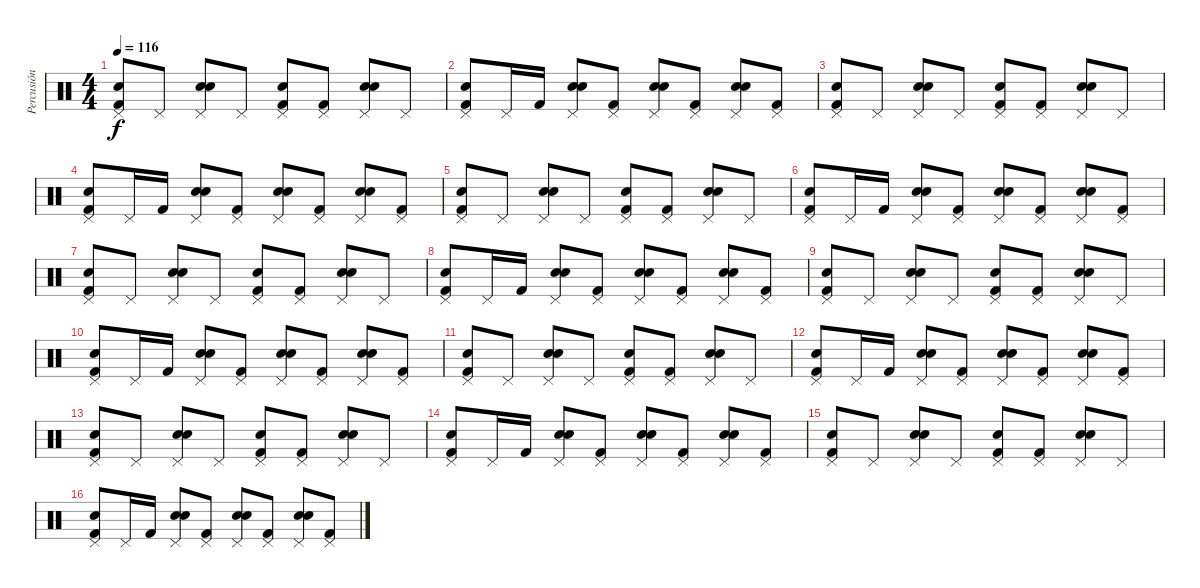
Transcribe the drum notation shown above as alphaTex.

\track ("Percusión" "Percusión") {instrument percussion}
\staff {score}
\articulation defaults
\ts (4 4)
\tempo 116
\clef neutral
\ks c
("Hand Clap (hit)" "Pedal Hi-Hat (hit)" "Kick (hit) 2").8{dy f} "Pedal Hi-Hat (hit)".8 ("Hand Clap (hit)" "Pedal Hi-Hat (hit)" "Snare (hit) 2").8 "Pedal Hi-Hat (hit)".8 ("Hand Clap (hit)" "Pedal Hi-Hat (hit)" "Kick (hit) 2").8 ("Pedal Hi-Hat (hit)" "Kick (hit) 2").8 ("Hand Clap (hit)" "Pedal Hi-Hat (hit)" "Snare (hit) 2").8 "Pedal Hi-Hat (hit)".8 |
("Hand Clap (hit)" "Pedal Hi-Hat (hit)" "Kick (hit) 2").8 "Pedal Hi-Hat (hit)".16 "Kick (hit) 2".16 ("Hand Clap (hit)" "Pedal Hi-Hat (hit)" "Snare (hit) 2").8 ("Pedal Hi-Hat (hit)" "Kick (hit) 2").8 ("Hand Clap (hit)" "Pedal Hi-Hat (hit)" "Snare (hit) 2").8 ("Pedal Hi-Hat (hit)" "Kick (hit) 2").8 ("Hand Clap (hit)" "Pedal Hi-Hat (hit)" "Snare (hit) 2").8 ("Pedal Hi-Hat (hit)" "Kick (hit) 2").8 |
("Hand Clap (hit)" "Pedal Hi-Hat (hit)" "Kick (hit) 2").8 "Pedal Hi-Hat (hit)".8 ("Hand Clap (hit)" "Pedal Hi-Hat (hit)" "Snare (hit) 2").8 "Pedal Hi-Hat (hit)".8 ("Hand Clap (hit)" "Pedal Hi-Hat (hit)" "Kick (hit) 2").8 ("Pedal Hi-Hat (hit)" "Kick (hit) 2").8 ("Hand Clap (hit)" "Pedal Hi-Hat (hit)" "Snare (hit) 2").8 "Pedal Hi-Hat (hit)".8 |
("Hand Clap (hit)" "Pedal Hi-Hat (hit)" "Kick (hit) 2").8 "Pedal Hi-Hat (hit)".16 "Kick (hit) 2".16 ("Hand Clap (hit)" "Pedal Hi-Hat (hit)" "Snare (hit) 2").8 ("Pedal Hi-Hat (hit)" "Kick (hit) 2").8 ("Hand Clap (hit)" "Pedal Hi-Hat (hit)" "Snare (hit) 2").8 ("Pedal Hi-Hat (hit)" "Kick (hit) 2").8 ("Hand Clap (hit)" "Pedal Hi-Hat (hit)" "Snare (hit) 2").8 ("Pedal Hi-Hat (hit)" "Kick (hit) 2").8 |
("Hand Clap (hit)" "Pedal Hi-Hat (hit)" "Kick (hit) 2").8 "Pedal Hi-Hat (hit)".8 ("Hand Clap (hit)" "Pedal Hi-Hat (hit)" "Snare (hit) 2").8 "Pedal Hi-Hat (hit)".8 ("Hand Clap (hit)" "Pedal Hi-Hat (hit)" "Kick (hit) 2").8 ("Pedal Hi-Hat (hit)" "Kick (hit) 2").8 ("Hand Clap (hit)" "Pedal Hi-Hat (hit)" "Snare (hit) 2").8 "Pedal Hi-Hat (hit)".8 |
("Hand Clap (hit)" "Pedal Hi-Hat (hit)" "Kick (hit) 2").8 "Pedal Hi-Hat (hit)".16 "Kick (hit) 2".16 ("Hand Clap (hit)" "Pedal Hi-Hat (hit)" "Snare (hit) 2").8 ("Pedal Hi-Hat (hit)" "Kick (hit) 2").8 ("Hand Clap (hit)" "Pedal Hi-Hat (hit)" "Snare (hit) 2").8 ("Pedal Hi-Hat (hit)" "Kick (hit) 2").8 ("Hand Clap (hit)" "Pedal Hi-Hat (hit)" "Snare (hit) 2").8 ("Pedal Hi-Hat (hit)" "Kick (hit) 2").8 |
("Hand Clap (hit)" "Pedal Hi-Hat (hit)" "Kick (hit) 2").8 "Pedal Hi-Hat (hit)".8 ("Hand Clap (hit)" "Pedal Hi-Hat (hit)" "Snare (hit) 2").8 "Pedal Hi-Hat (hit)".8 ("Hand Clap (hit)" "Pedal Hi-Hat (hit)" "Kick (hit) 2").8 ("Pedal Hi-Hat (hit)" "Kick (hit) 2").8 ("Hand Clap (hit)" "Pedal Hi-Hat (hit)" "Snare (hit) 2").8 "Pedal Hi-Hat (hit)".8 |
("Hand Clap (hit)" "Pedal Hi-Hat (hit)" "Kick (hit) 2").8 "Pedal Hi-Hat (hit)".16 "Kick (hit) 2".16 ("Hand Clap (hit)" "Pedal Hi-Hat (hit)" "Snare (hit) 2").8 ("Pedal Hi-Hat (hit)" "Kick (hit) 2").8 ("Hand Clap (hit)" "Pedal Hi-Hat (hit)" "Snare (hit) 2").8 ("Pedal Hi-Hat (hit)" "Kick (hit) 2").8 ("Hand Clap (hit)" "Pedal Hi-Hat (hit)" "Snare (hit) 2").8 ("Pedal Hi-Hat (hit)" "Kick (hit) 2").8 |
("Hand Clap (hit)" "Pedal Hi-Hat (hit)" "Kick (hit) 2").8 "Pedal Hi-Hat (hit)".8 ("Hand Clap (hit)" "Pedal Hi-Hat (hit)" "Snare (hit) 2").8 "Pedal Hi-Hat (hit)".8 ("Hand Clap (hit)" "Pedal Hi-Hat (hit)" "Kick (hit) 2").8 ("Pedal Hi-Hat (hit)" "Kick (hit) 2").8 ("Hand Clap (hit)" "Pedal Hi-Hat (hit)" "Snare (hit) 2").8 "Pedal Hi-Hat (hit)".8 |
("Hand Clap (hit)" "Pedal Hi-Hat (hit)" "Kick (hit) 2").8 "Pedal Hi-Hat (hit)".16 "Kick (hit) 2".16 ("Hand Clap (hit)" "Pedal Hi-Hat (hit)" "Snare (hit) 2").8 ("Pedal Hi-Hat (hit)" "Kick (hit) 2").8 ("Hand Clap (hit)" "Pedal Hi-Hat (hit)" "Snare (hit) 2").8 ("Pedal Hi-Hat (hit)" "Kick (hit) 2").8 ("Hand Clap (hit)" "Pedal Hi-Hat (hit)" "Snare (hit) 2").8 ("Pedal Hi-Hat (hit)" "Kick (hit) 2").8 |
("Hand Clap (hit)" "Pedal Hi-Hat (hit)" "Kick (hit) 2").8{volume 10} "Pedal Hi-Hat (hit)".8 ("Hand Clap (hit)" "Pedal Hi-Hat (hit)" "Snare (hit) 2").8 "Pedal Hi-Hat (hit)".8 ("Hand Clap (hit)" "Pedal Hi-Hat (hit)" "Kick (hit) 2").8 ("Pedal Hi-Hat (hit)" "Kick (hit) 2").8 ("Hand Clap (hit)" "Pedal Hi-Hat (hit)" "Snare (hit) 2").8 "Pedal Hi-Hat (hit)".8 |
("Hand Clap (hit)" "Pedal Hi-Hat (hit)" "Kick (hit) 2").8 "Pedal Hi-Hat (hit)".16 "Kick (hit) 2".16 ("Hand Clap (hit)" "Pedal Hi-Hat (hit)" "Snare (hit) 2").8 ("Pedal Hi-Hat (hit)" "Kick (hit) 2").8 ("Hand Clap (hit)" "Pedal Hi-Hat (hit)" "Snare (hit) 2").8 ("Pedal Hi-Hat (hit)" "Kick (hit) 2").8 ("Hand Clap (hit)" "Pedal Hi-Hat (hit)" "Snare (hit) 2").8 ("Pedal Hi-Hat (hit)" "Kick (hit) 2").8 |
("Hand Clap (hit)" "Pedal Hi-Hat (hit)" "Kick (hit) 2").8{volume 8} "Pedal Hi-Hat (hit)".8 ("Hand Clap (hit)" "Pedal Hi-Hat (hit)" "Snare (hit) 2").8 "Pedal Hi-Hat (hit)".8 ("Hand Clap (hit)" "Pedal Hi-Hat (hit)" "Kick (hit) 2").8 ("Pedal Hi-Hat (hit)" "Kick (hit) 2").8 ("Hand Clap (hit)" "Pedal Hi-Hat (hit)" "Snare (hit) 2").8 "Pedal Hi-Hat (hit)".8 |
("Hand Clap (hit)" "Pedal Hi-Hat (hit)" "Kick (hit) 2").8 "Pedal Hi-Hat (hit)".16 "Kick (hit) 2".16 ("Hand Clap (hit)" "Pedal Hi-Hat (hit)" "Snare (hit) 2").8 ("Pedal Hi-Hat (hit)" "Kick (hit) 2").8 ("Hand Clap (hit)" "Pedal Hi-Hat (hit)" "Snare (hit) 2").8 ("Pedal Hi-Hat (hit)" "Kick (hit) 2").8 ("Hand Clap (hit)" "Pedal Hi-Hat (hit)" "Snare (hit) 2").8 ("Pedal Hi-Hat (hit)" "Kick (hit) 2").8 |
("Hand Clap (hit)" "Pedal Hi-Hat (hit)" "Kick (hit) 2").8 "Pedal Hi-Hat (hit)".8 ("Hand Clap (hit)" "Pedal Hi-Hat (hit)" "Snare (hit) 2").8 "Pedal Hi-Hat (hit)".8 ("Hand Clap (hit)" "Pedal Hi-Hat (hit)" "Kick (hit) 2").8 ("Pedal Hi-Hat (hit)" "Kick (hit) 2").8 ("Hand Clap (hit)" "Pedal Hi-Hat (hit)" "Snare (hit) 2").8 "Pedal Hi-Hat (hit)".8 |
("Hand Clap (hit)" "Pedal Hi-Hat (hit)" "Kick (hit) 2").8 "Pedal Hi-Hat (hit)".16 "Kick (hit) 2".16 ("Hand Clap (hit)" "Pedal Hi-Hat (hit)" "Snare (hit) 2").8 ("Pedal Hi-Hat (hit)" "Kick (hit) 2").8 ("Hand Clap (hit)" "Pedal Hi-Hat (hit)" "Snare (hit) 2").8 ("Pedal Hi-Hat (hit)" "Kick (hit) 2").8 ("Hand Clap (hit)" "Pedal Hi-Hat (hit)" "Snare (hit) 2").8 ("Pedal Hi-Hat (hit)" "Kick (hit) 2").8
